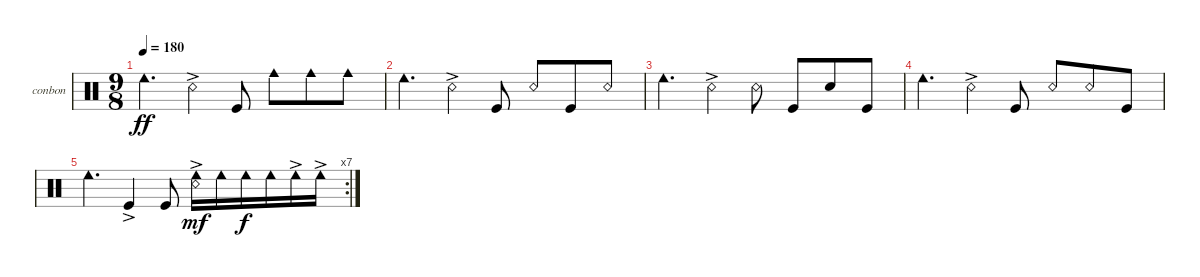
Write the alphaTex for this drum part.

\defaultSystemsLayout 4
\bracketExtendMode groupsimilarinstruments
\firstSystemTrackNameOrientation horizontal
\otherSystemsTrackNameOrientation horizontal
\track ("Bongos N Congas" "conbon") {instrument percussion}
\staff {score}
\articulation defaults
\ts (9 8)
\tempo 180
\clef neutral
\scale
0.333333
\ks c "Cowbell low (hit)".4{d dy ff} "Snare (rim shot)"{ac}.4 "Kick (hit)".8 "Cowbell medium (hit)".8 "Cowbell medium (hit)".8 "Cowbell medium (hit)".8
|
\scale
0.333333 "Cowbell low (hit)".4{d} "Snare (rim shot)"{ac}.4 "Kick (hit)".8 "Snare (rim shot)".8 "Kick (hit)".8 "Snare (rim shot)".8 |
\scale
0.333333 "Cowbell low (hit)".4{d} "Snare (rim shot)"{ac}.4 "Snare (rim shot)".8 "Kick (hit)".8 "Snare (hit) 2".8 "Kick (hit)".8 |
"Cowbell low (hit)".4{d} "Snare (rim shot)"{ac}.4 "Kick (hit)".8 "Snare (rim shot)".8 "Snare (rim shot)".8 "Kick (hit)".8 |
\rc 7 "Cowbell low (hit)".4{d} "Kick (hit)"{ac}.4 "Kick (hit)".8
("Cowbell low (hit)" "Snare (rim shot)"{ac}).16{dy mf} "Cowbell low (hit)".16 "Cowbell low (hit)".16{dy f} "Cowbell low (hit)".16 "Cowbell low (hit)"{ac}.16 "Cowbell low (hit)"{ac}.16
